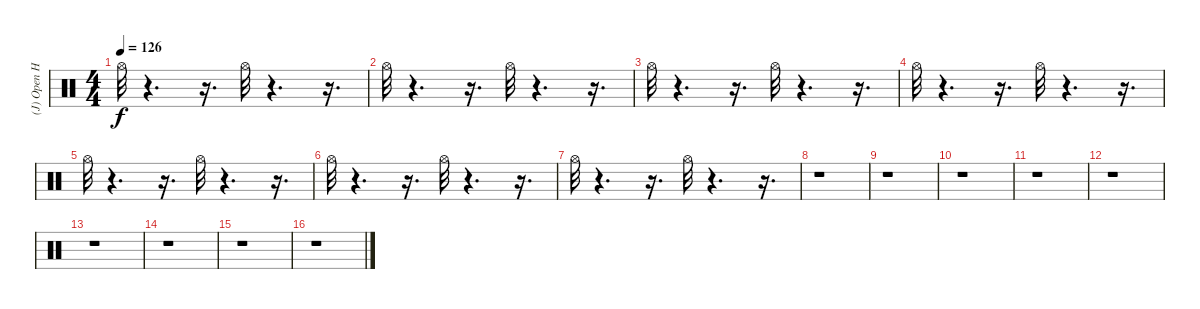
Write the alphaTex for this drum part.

\track ("(J) Open Hi Hat" "(J) Open H") {instrument percussion}
\staff {score}
\articulation defaults
\ts (4 4)
\tempo 126
\clef neutral
\ks c "Hi-Hat (open)".32{dy f}
r.4{d} r.16{d} "Hi-Hat (open)".32 r.4{d} r.16{d} |
"Hi-Hat (open)".32 r.4{d} r.16{d} "Hi-Hat (open)".32 r.4{d} r.16{d} |
"Hi-Hat (open)".32 r.4{d} r.16{d} "Hi-Hat (open)".32 r.4{d} r.16{d} |
"Hi-Hat (open)".32 r.4{d} r.16{d} "Hi-Hat (open)".32 r.4{d} r.16{d} |
"Hi-Hat (open)".32 r.4{d} r.16{d} "Hi-Hat (open)".32 r.4{d} r.16{d} |
"Hi-Hat (open)".32 r.4{d} r.16{d} "Hi-Hat (open)".32 r.4{d} r.16{d} |
"Hi-Hat (open)".32 r.4{d} r.16{d} "Hi-Hat (open)".32 r.4{d} r.16{d} |
r.1 |
r.1 |
r.1 |
r.1 |
r.1 |
r.1 |
r.1 |
r.1 |
r.1
